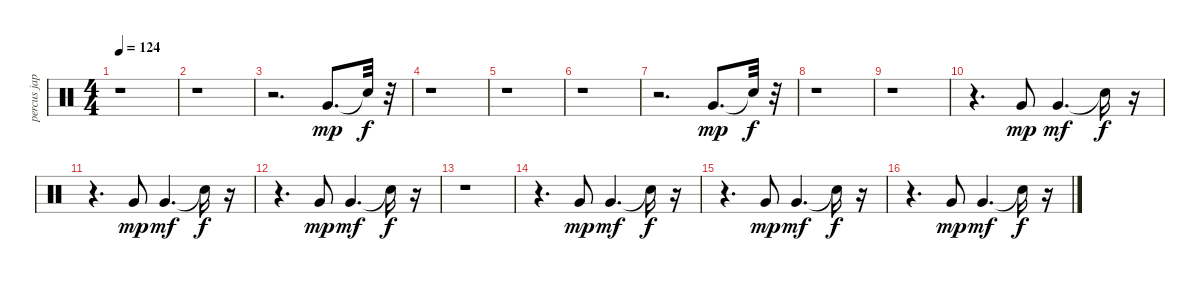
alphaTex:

\track ("percus jap" "percus jap") {instrument percussion}
\staff {score}
\articulation defaults
\ts (4 4)
\tempo 124
\clef neutral
\ks c
r.1{dy f} |
r.1 |
r.2{d} "Very Low Tom (hit)".8{d dy mp} "Snare (hit)"{t}.32{dy f} r.32 |
r.1 |
r.1 |
r.1 |
r.2{d} "Very Low Tom (hit)".8{d dy mp} "Snare (hit)"{t}.32{dy f} r.32 |
r.1 |
r.1 |
r.4{d} "Very Low Tom (hit)".8{dy mp} "Very Low Tom (hit)".4{d dy mf} "Snare (hit)"{t}.16{dy f} r.16 |
r.4{d} "Very Low Tom (hit)".8{dy mp} "Very Low Tom (hit)".4{d dy mf} "Snare (hit)"{t}.16{dy f} r.16 |
r.4{d} "Very Low Tom (hit)".8{dy mp} "Very Low Tom (hit)".4{d dy mf} "Snare (hit)"{t}.16{dy f} r.16 |
r.1 |
r.4{d} "Very Low Tom (hit)".8{dy mp} "Very Low Tom (hit)".4{d dy mf} "Snare (hit)"{t}.16{dy f} r.16 |
r.4{d} "Very Low Tom (hit)".8{dy mp} "Very Low Tom (hit)".4{d dy mf} "Snare (hit)"{t}.16{dy f} r.16 |
r.4{d} "Very Low Tom (hit)".8{dy mp} "Very Low Tom (hit)".4{d dy mf} "Snare (hit)"{t}.16{dy f} r.16
